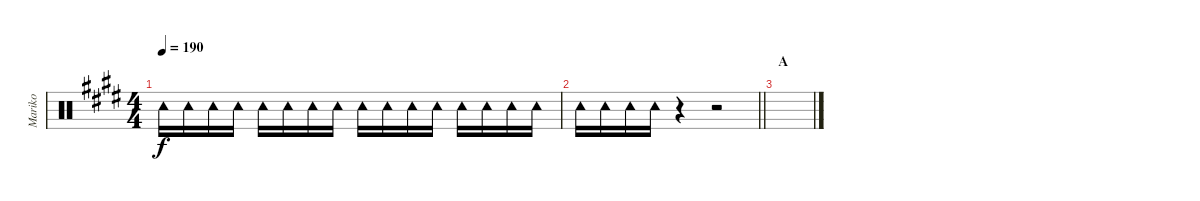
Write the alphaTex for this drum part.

\track ("Mariko" "Mariko") {mute instrument percussion}
\staff {score}
\articulation defaults
\ts (4 4)
\tempo 190
\clef neutral
\ks e "Tambourine (hit)".16{dy f} "Tambourine (hit)".16 "Tambourine (hit)".16 "Tambourine (hit)".16 "Tambourine (hit)".16 "Tambourine (hit)".16 "Tambourine (hit)".16 "Tambourine (hit)".16 "Tambourine (hit)".16 "Tambourine (hit)".16 "Tambourine (hit)".16 "Tambourine (hit)".16 "Tambourine (hit)".16 "Tambourine (hit)".16 "Tambourine (hit)".16 "Tambourine (hit)".16
|
\barLineRight lightlight "Tambourine (hit)".16 "Tambourine (hit)".16 "Tambourine (hit)".16 "Tambourine (hit)".16
r.4 r.2 |
\section ("" "A")
